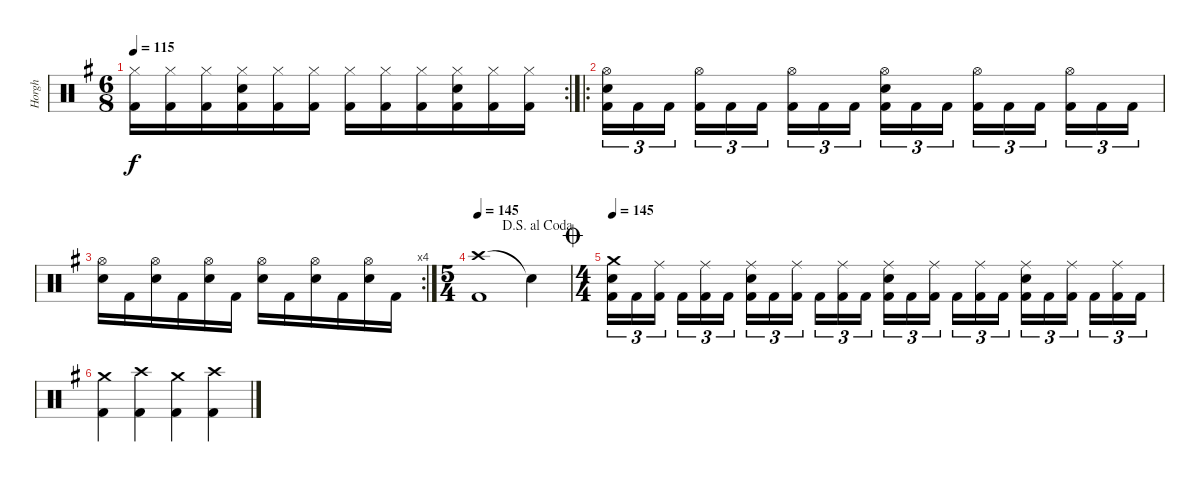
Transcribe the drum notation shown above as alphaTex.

\track ("Horgh" "Horgh") {instrument percussion}
\staff {score}
\articulation defaults
\rc 2
\ts (6 8)
\tempo 115
\clef neutral
\ks g
("Hi-Hat (closed)" "Kick (hit) 2").16{dy f} ("Hi-Hat (closed)" "Kick (hit) 2").16 ("Hi-Hat (closed)" "Kick (hit) 2").16 ("Hi-Hat (closed)" "Electric Snare (hit)" "Kick (hit) 2").16 ("Hi-Hat (closed)" "Kick (hit) 2").16 ("Hi-Hat (closed)" "Kick (hit) 2").16 ("Hi-Hat (closed)" "Kick (hit) 2").16 ("Hi-Hat (closed)" "Kick (hit) 2").16 ("Hi-Hat (closed)" "Kick (hit) 2").16 ("Hi-Hat (closed)" "Electric Snare (hit)" "Kick (hit) 2").16 ("Hi-Hat (closed)" "Kick (hit) 2").16 ("Hi-Hat (closed)" "Kick (hit) 2").16 |
\ro
("Hi-Hat (open)" "Electric Snare (hit)" "Kick (hit) 2").16{tu (3 2)} "Kick (hit) 2".16{tu (3 2)} "Kick (hit) 2".16{tu (3 2) beam splitsecondary} ("Hi-Hat (open)" "Kick (hit) 2").16{tu (3 2)} "Kick (hit) 2".16{tu (3 2)} "Kick (hit) 2".16{tu (3 2) beam splitsecondary} ("Hi-Hat (open)" "Kick (hit) 2").16{tu (3 2)} "Kick (hit) 2".16{tu (3 2)} "Kick (hit) 2".16{tu (3 2)} ("Hi-Hat (open)" "Electric Snare (hit)" "Kick (hit) 2").16{tu (3 2)} "Kick (hit) 2".16{tu (3 2)} "Kick (hit) 2".16{tu (3 2) beam splitsecondary} ("Hi-Hat (open)" "Kick (hit) 2").16{tu (3 2)} "Kick (hit) 2".16{tu (3 2)} "Kick (hit) 2".16{tu (3 2) beam splitsecondary} ("Hi-Hat (open)" "Kick (hit) 2").16{tu (3 2)} "Kick (hit) 2".16{tu (3 2)} "Kick (hit) 2".16{tu (3 2)} |
\rc 4
("Hi-Hat (open)" "Electric Snare (hit)").16 "Kick (hit) 2".16 ("Hi-Hat (open)" "Electric Snare (hit)").16 "Kick (hit) 2".16 ("Hi-Hat (open)" "Electric Snare (hit)").16 "Kick (hit) 2".16 ("Hi-Hat (open)" "Electric Snare (hit)").16 "Kick (hit) 2".16 ("Hi-Hat (open)" "Electric Snare (hit)").16 "Kick (hit) 2".16 ("Hi-Hat (open)" "Electric Snare (hit)").16 "Kick (hit) 2".16 |
\ts (5 4)
\jump dalsegnoalcoda
\tempo 145
("Crash high (hit)" "Kick (hit) 2").1 "Snare (hit)"{t}.4 |
\ts (4 4)
\jump coda
\tempo 145
("Crash medium (hit)" "Electric Snare (hit)" "Kick (hit) 2").16{tu (3 2)} "Kick (hit) 2".16{tu (3 2)} ("Ride (middle)" "Kick (hit) 2").16{tu (3 2) beam splitsecondary} "Kick (hit) 2".16{tu (3 2)} ("Ride (middle)" "Kick (hit) 2").16{tu (3 2)} "Kick (hit) 2".16{tu (3 2)} ("Ride (middle)" "Electric Snare (hit)" "Kick (hit) 2").16{tu (3 2)} "Kick (hit) 2".16{tu (3 2)} ("Ride (middle)" "Kick (hit) 2").16{tu (3 2) beam splitsecondary} "Kick (hit) 2".16{tu (3 2)} ("Ride (middle)" "Kick (hit) 2").16{tu (3 2)} "Kick (hit) 2".16{tu (3 2)} ("Ride (middle)" "Electric Snare (hit)" "Kick (hit) 2").16{tu (3 2)} "Kick (hit) 2".16{tu (3 2)} ("Ride (middle)" "Kick (hit) 2").16{tu (3 2) beam splitsecondary} "Kick (hit) 2".16{tu (3 2)} ("Ride (middle)" "Kick (hit) 2").16{tu (3 2)} "Kick (hit) 2".16{tu (3 2)} ("Ride (middle)" "Electric Snare (hit)" "Kick (hit) 2").16{tu (3 2)} "Kick (hit) 2".16{tu (3 2)} ("Ride (middle)" "Kick (hit) 2").16{tu (3 2) beam splitsecondary} "Kick (hit) 2".16{tu (3 2)} ("Ride (middle)" "Kick (hit) 2").16{tu (3 2)} "Kick (hit) 2".16{tu (3 2)} |
("Crash medium (hit)" "Kick (hit) 2").4 ("Crash high (hit)" "Kick (hit) 2").4 ("Crash medium (hit)" "Kick (hit) 2").4 ("Crash high (hit)" "Kick (hit) 2").4
